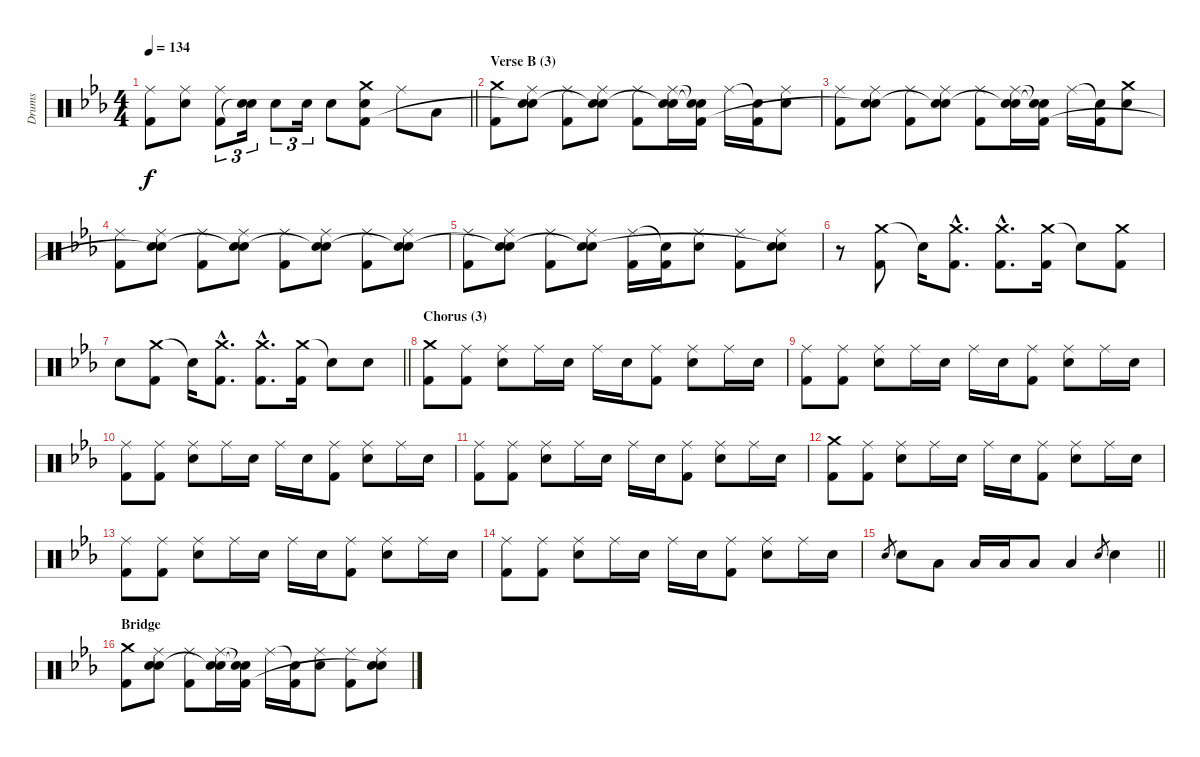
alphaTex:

\track ("Drums" "Drums") {instrument percussion}
\staff {score}
\articulation defaults
\ts (4 4)
\tempo 134
\clef neutral
\barLineRight lightlight
\ks eb
("Ride (middle)" "Kick (hit) 2").8{dy f} ("Ride (middle)" "Electric Snare (hit)").8 ("Ride (middle)" "Kick (hit) 2").8{tu (3 2)} ("Electric Snare (hit)" "Snare (hit)"{t}).16{tu (3 2)} "Electric Snare (hit)".8{tu (3 2)} "Electric Snare (hit)".16{tu (3 2)} "Electric Snare (hit)".8 ("Crash medium (hit)" "Electric Snare (hit)" "Kick (hit) 2").8 "Ride (middle)".8 "Low Floor Tom (hit)".8 |
\section ("" "Verse B (3)")
("Crash medium (hit)" "Kick (hit) 2").8 ("Ride (middle)" "Electric Snare (hit)" "Snare (hit)"{t}).8 ("Ride (middle)" "Kick (hit) 2").8 ("Ride (middle)" "Electric Snare (hit)" "Snare (hit)"{t}).8 ("Ride (middle)" "Kick (hit) 2").8 ("Ride (middle)" "Electric Snare (hit)" "Snare (hit)"{t}).16 ("Snare (hit)"{t} "Snare (hit)"{t} "Kick (hit) 2").16 "Ride (middle)".16 ("Snare (hit)"{t} "Kick (hit) 2").16 ("Ride (middle)" "Electric Snare (hit)").8 |
("Ride (middle)" "Kick (hit) 2").8 ("Ride (middle)" "Electric Snare (hit)" "Snare (hit)"{t}).8 ("Ride (middle)" "Kick (hit) 2").8 ("Ride (middle)" "Electric Snare (hit)" "Snare (hit)"{t}).8 ("Ride (middle)" "Kick (hit) 2").8 ("Ride (middle)" "Electric Snare (hit)" "Snare (hit)"{t}).16 ("Snare (hit)"{t} "Snare (hit)"{t} "Kick (hit) 2").16 "Ride (middle)".16 ("Snare (hit)"{t} "Kick (hit) 2").16 ("Crash medium (hit)" "Electric Snare (hit)").8 |
("Ride (middle)" "Kick (hit) 2").8 ("Ride (middle)" "Electric Snare (hit)" "Snare (hit)"{t}).8 ("Ride (middle)" "Kick (hit) 2").8 ("Ride (middle)" "Electric Snare (hit)" "Snare (hit)"{t}).8 ("Ride (middle)" "Kick (hit) 2").8 ("Ride (middle)" "Electric Snare (hit)" "Snare (hit)"{t}).8 ("Ride (middle)" "Kick (hit) 2").8 ("Ride (middle)" "Electric Snare (hit)" "Snare (hit)"{t}).8 |
("Ride (middle)" "Kick (hit) 2").8 ("Ride (middle)" "Electric Snare (hit)" "Snare (hit)"{t}).8 ("Ride (middle)" "Kick (hit) 2").8 ("Ride (middle)" "Electric Snare (hit)" "Snare (hit)"{t}).8 ("Ride (middle)" "Kick (hit) 2").16 ("Snare (hit)"{t} "Kick (hit) 2").16 ("Ride (middle)" "Electric Snare (hit)").8 ("Ride (middle)" "Kick (hit) 2").8 ("Ride (middle)" "Electric Snare (hit)" "Snare (hit)"{t}).8 |
r.8 ("Crash medium (hit)" "Kick (hit) 2").8 "Snare (hit)"{t}.16 ("Crash medium (hit)"{hac} "Kick (hit) 2"{hac}).8{d} ("Crash medium (hit)"{hac} "Kick (hit) 2"{hac}).8{d} ("Crash medium (hit)" "Kick (hit) 2").16 "Snare (hit)"{t}.8 ("Crash medium (hit)" "Kick (hit) 2").8 |
\barLineRight lightlight "Electric Snare (hit)".8
("Crash medium (hit)" "Kick (hit) 2").8 "Snare (hit)"{t}.16 ("Crash medium (hit)"{hac} "Kick (hit) 2"{hac}).8{d} ("Crash medium (hit)"{hac} "Kick (hit) 2"{hac}).8{d} ("Crash medium (hit)" "Kick (hit) 2").16 "Snare (hit)"{t}.8 "Electric Snare (hit)".8 |
\section ("" "Chorus (3)")
("Crash medium (hit)" "Kick (hit) 2").8 ("Ride (middle)" "Kick (hit) 2").8 ("Ride (middle)" "Electric Snare (hit)").8 "Ride (middle)".16 "Electric Snare (hit)".16 "Ride (middle)".16 "Electric Snare (hit)".16 ("Ride (middle)" "Kick (hit) 2").8 ("Ride (middle)" "Electric Snare (hit)").8 "Ride (middle)".16 "Electric Snare (hit)".16 |
("Ride (middle)" "Kick (hit) 2").8 ("Ride (middle)" "Kick (hit) 2").8 ("Ride (middle)" "Electric Snare (hit)").8 "Ride (middle)".16 "Electric Snare (hit)".16 "Ride (middle)".16 "Electric Snare (hit)".16 ("Ride (middle)" "Kick (hit) 2").8 ("Ride (middle)" "Electric Snare (hit)").8 "Ride (middle)".16 "Electric Snare (hit)".16 |
("Ride (middle)" "Kick (hit) 2").8 ("Ride (middle)" "Kick (hit) 2").8 ("Ride (middle)" "Electric Snare (hit)").8 "Ride (middle)".16 "Electric Snare (hit)".16 "Ride (middle)".16 "Electric Snare (hit)".16 ("Ride (middle)" "Kick (hit) 2").8 ("Ride (middle)" "Electric Snare (hit)").8 "Ride (middle)".16 "Electric Snare (hit)".16 |
("Ride (middle)" "Kick (hit) 2").8 ("Ride (middle)" "Kick (hit) 2").8 ("Ride (middle)" "Electric Snare (hit)").8 "Ride (middle)".16 "Electric Snare (hit)".16 "Ride (middle)".16 "Electric Snare (hit)".16 ("Ride (middle)" "Kick (hit) 2").8 ("Ride (middle)" "Electric Snare (hit)").8 "Ride (middle)".16 "Electric Snare (hit)".16 |
("Crash medium (hit)" "Kick (hit) 2").8 ("Ride (middle)" "Kick (hit) 2").8 ("Ride (middle)" "Electric Snare (hit)").8 "Ride (middle)".16 "Electric Snare (hit)".16 "Ride (middle)".16 "Electric Snare (hit)".16 ("Ride (middle)" "Kick (hit) 2").8 ("Ride (middle)" "Electric Snare (hit)").8 "Ride (middle)".16 "Electric Snare (hit)".16 |
("Ride (middle)" "Kick (hit) 2").8 ("Ride (middle)" "Kick (hit) 2").8 ("Ride (middle)" "Electric Snare (hit)").8 "Ride (middle)".16 "Electric Snare (hit)".16 "Ride (middle)".16 "Electric Snare (hit)".16 ("Ride (middle)" "Kick (hit) 2").8 ("Ride (middle)" "Electric Snare (hit)").8 "Ride (middle)".16 "Electric Snare (hit)".16 |
("Ride (middle)" "Kick (hit) 2").8 ("Ride (middle)" "Kick (hit) 2").8 ("Ride (middle)" "Electric Snare (hit)").8 "Ride (middle)".16 "Electric Snare (hit)".16 "Ride (middle)".16 "Electric Snare (hit)".16 ("Ride (middle)" "Kick (hit) 2").8 ("Ride (middle)" "Electric Snare (hit)").8 "Ride (middle)".16 "Electric Snare (hit)".16 |
\barLineRight lightlight "Electric Snare (hit)".8{gr} "Electric Snare (hit)".8 "Low Floor Tom (hit)".8 "Low Floor Tom (hit)".16 "Low Floor Tom (hit)".16 "Low Floor Tom (hit)".8 "Low Floor Tom (hit)".4 "Electric Snare (hit)".8{gr} "Electric Snare (hit)".4
|
\section ("" "Bridge")
("Crash medium (hit)" "Kick (hit) 2").8 ("Ride (middle)" "Electric Snare (hit)" "Snare (hit)").8 ("Ride (middle)" "Kick (hit) 2").8 ("Ride (middle)" "Electric Snare (hit)" "Snare (hit)"{t}).16 ("Snare (hit)"{t} "Snare (hit)"{t} "Kick (hit) 2").16 "Ride (middle)".16 ("Snare (hit)"{t} "Kick (hit) 2").16 ("Ride (middle)" "Electric Snare (hit)").8 ("Ride (middle)" "Kick (hit) 2").8 ("Ride (middle)" "Electric Snare (hit)" "Snare (hit)"{t}).8
